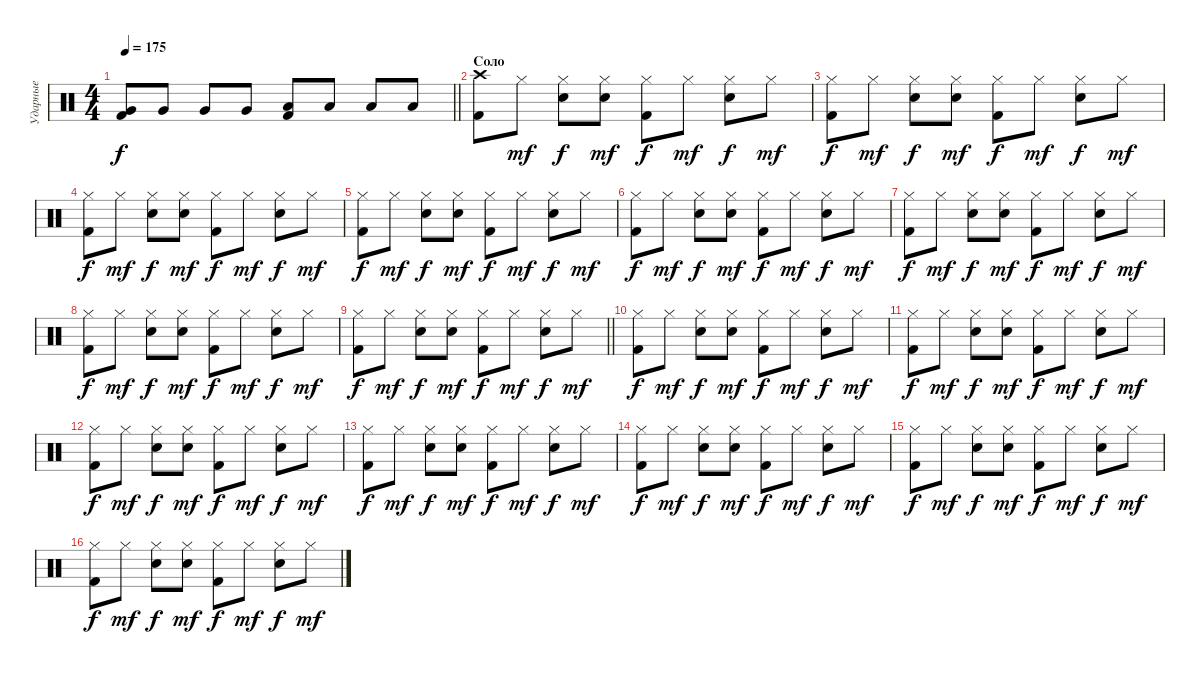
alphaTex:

\track ("Ударные" "Ударные") {instrument percussion}
\staff {score}
\articulation defaults
\ts (4 4)
\tempo 175
\clef neutral
\barLineRight lightlight
\ks c
("Very Low Tom (hit)" "Kick (hit) 2").8{dy f} "Very Low Tom (hit)".8 "Very Low Tom (hit)".8 "Very Low Tom (hit)".8 ("Low Floor Tom (hit)" "Kick (hit) 2").8 "Low Floor Tom (hit)".8 "Low Floor Tom (hit)".8 "Low Floor Tom (hit)".8 |
\section ("" "Соло")
("Crash high (hit)" "Kick (hit) 2").8 "Hi-Hat (closed)".8{dy mf} ("Hi-Hat (closed)" "Snare (hit) 2").8{dy f} ("Hi-Hat (closed)" "Snare (hit) 2").8{dy mf} ("Hi-Hat (closed)" "Kick (hit) 2").8{dy f} "Hi-Hat (closed)".8{dy mf} ("Hi-Hat (closed)" "Snare (hit) 2").8{dy f} "Hi-Hat (closed)".8{dy mf} |
("Hi-Hat (closed)" "Kick (hit) 2").8{dy f} "Hi-Hat (closed)".8{dy mf} ("Hi-Hat (closed)" "Snare (hit) 2").8{dy f} ("Hi-Hat (closed)" "Snare (hit) 2").8{dy mf} ("Hi-Hat (closed)" "Kick (hit) 2").8{dy f} "Hi-Hat (closed)".8{dy mf} ("Hi-Hat (closed)" "Snare (hit) 2").8{dy f} "Hi-Hat (closed)".8{dy mf} |
("Hi-Hat (closed)" "Kick (hit) 2").8{dy f} "Hi-Hat (closed)".8{dy mf} ("Hi-Hat (closed)" "Snare (hit) 2").8{dy f} ("Hi-Hat (closed)" "Snare (hit) 2").8{dy mf} ("Hi-Hat (closed)" "Kick (hit) 2").8{dy f} "Hi-Hat (closed)".8{dy mf} ("Hi-Hat (closed)" "Snare (hit) 2").8{dy f} "Hi-Hat (closed)".8{dy mf} |
("Hi-Hat (closed)" "Kick (hit) 2").8{dy f} "Hi-Hat (closed)".8{dy mf} ("Hi-Hat (closed)" "Snare (hit) 2").8{dy f} ("Hi-Hat (closed)" "Snare (hit) 2").8{dy mf} ("Hi-Hat (closed)" "Kick (hit) 2").8{dy f} "Hi-Hat (closed)".8{dy mf} ("Hi-Hat (closed)" "Snare (hit) 2").8{dy f} "Hi-Hat (closed)".8{dy mf} |
("Hi-Hat (closed)" "Kick (hit) 2").8{dy f} "Hi-Hat (closed)".8{dy mf} ("Hi-Hat (closed)" "Snare (hit) 2").8{dy f} ("Hi-Hat (closed)" "Snare (hit) 2").8{dy mf} ("Hi-Hat (closed)" "Kick (hit) 2").8{dy f} "Hi-Hat (closed)".8{dy mf} ("Hi-Hat (closed)" "Snare (hit) 2").8{dy f} "Hi-Hat (closed)".8{dy mf} |
("Hi-Hat (closed)" "Kick (hit) 2").8{dy f} "Hi-Hat (closed)".8{dy mf} ("Hi-Hat (closed)" "Snare (hit) 2").8{dy f} ("Hi-Hat (closed)" "Snare (hit) 2").8{dy mf} ("Hi-Hat (closed)" "Kick (hit) 2").8{dy f} "Hi-Hat (closed)".8{dy mf} ("Hi-Hat (closed)" "Snare (hit) 2").8{dy f} "Hi-Hat (closed)".8{dy mf} |
("Hi-Hat (closed)" "Kick (hit) 2").8{dy f} "Hi-Hat (closed)".8{dy mf} ("Hi-Hat (closed)" "Snare (hit) 2").8{dy f} ("Hi-Hat (closed)" "Snare (hit) 2").8{dy mf} ("Hi-Hat (closed)" "Kick (hit) 2").8{dy f} "Hi-Hat (closed)".8{dy mf} ("Hi-Hat (closed)" "Snare (hit) 2").8{dy f} "Hi-Hat (closed)".8{dy mf} |
\barLineRight lightlight
("Hi-Hat (closed)" "Kick (hit) 2").8{dy f} "Hi-Hat (closed)".8{dy mf} ("Hi-Hat (closed)" "Snare (hit) 2").8{dy f} ("Hi-Hat (closed)" "Snare (hit) 2").8{dy mf} ("Hi-Hat (closed)" "Kick (hit) 2").8{dy f} "Hi-Hat (closed)".8{dy mf} ("Hi-Hat (closed)" "Snare (hit) 2").8{dy f} "Hi-Hat (closed)".8{dy mf} |
\section ("" "")
("Hi-Hat (closed)" "Kick (hit) 2").8{dy f} "Hi-Hat (closed)".8{dy mf} ("Hi-Hat (closed)" "Snare (hit) 2").8{dy f} ("Hi-Hat (closed)" "Snare (hit) 2").8{dy mf} ("Hi-Hat (closed)" "Kick (hit) 2").8{dy f} "Hi-Hat (closed)".8{dy mf} ("Hi-Hat (closed)" "Snare (hit) 2").8{dy f} "Hi-Hat (closed)".8{dy mf} |
("Hi-Hat (closed)" "Kick (hit) 2").8{dy f} "Hi-Hat (closed)".8{dy mf} ("Hi-Hat (closed)" "Snare (hit) 2").8{dy f} ("Hi-Hat (closed)" "Snare (hit) 2").8{dy mf} ("Hi-Hat (closed)" "Kick (hit) 2").8{dy f} "Hi-Hat (closed)".8{dy mf} ("Hi-Hat (closed)" "Snare (hit) 2").8{dy f} "Hi-Hat (closed)".8{dy mf} |
("Hi-Hat (closed)" "Kick (hit) 2").8{dy f} "Hi-Hat (closed)".8{dy mf} ("Hi-Hat (closed)" "Snare (hit) 2").8{dy f} ("Hi-Hat (closed)" "Snare (hit) 2").8{dy mf} ("Hi-Hat (closed)" "Kick (hit) 2").8{dy f} "Hi-Hat (closed)".8{dy mf} ("Hi-Hat (closed)" "Snare (hit) 2").8{dy f} "Hi-Hat (closed)".8{dy mf} |
("Hi-Hat (closed)" "Kick (hit) 2").8{dy f} "Hi-Hat (closed)".8{dy mf} ("Hi-Hat (closed)" "Snare (hit) 2").8{dy f} ("Hi-Hat (closed)" "Snare (hit) 2").8{dy mf} ("Hi-Hat (closed)" "Kick (hit) 2").8{dy f} "Hi-Hat (closed)".8{dy mf} ("Hi-Hat (closed)" "Snare (hit) 2").8{dy f} "Hi-Hat (closed)".8{dy mf} |
("Hi-Hat (closed)" "Kick (hit) 2").8{dy f} "Hi-Hat (closed)".8{dy mf} ("Hi-Hat (closed)" "Snare (hit) 2").8{dy f} ("Hi-Hat (closed)" "Snare (hit) 2").8{dy mf} ("Hi-Hat (closed)" "Kick (hit) 2").8{dy f} "Hi-Hat (closed)".8{dy mf} ("Hi-Hat (closed)" "Snare (hit) 2").8{dy f} "Hi-Hat (closed)".8{dy mf} |
("Hi-Hat (closed)" "Kick (hit) 2").8{dy f} "Hi-Hat (closed)".8{dy mf} ("Hi-Hat (closed)" "Snare (hit) 2").8{dy f} ("Hi-Hat (closed)" "Snare (hit) 2").8{dy mf} ("Hi-Hat (closed)" "Kick (hit) 2").8{dy f} "Hi-Hat (closed)".8{dy mf} ("Hi-Hat (closed)" "Snare (hit) 2").8{dy f} "Hi-Hat (closed)".8{dy mf} |
("Hi-Hat (closed)" "Kick (hit) 2").8{dy f} "Hi-Hat (closed)".8{dy mf} ("Hi-Hat (closed)" "Snare (hit) 2").8{dy f} ("Hi-Hat (closed)" "Snare (hit) 2").8{dy mf} ("Hi-Hat (closed)" "Kick (hit) 2").8{dy f} "Hi-Hat (closed)".8{dy mf} ("Hi-Hat (closed)" "Snare (hit) 2").8{dy f} "Hi-Hat (closed)".8{dy mf}
